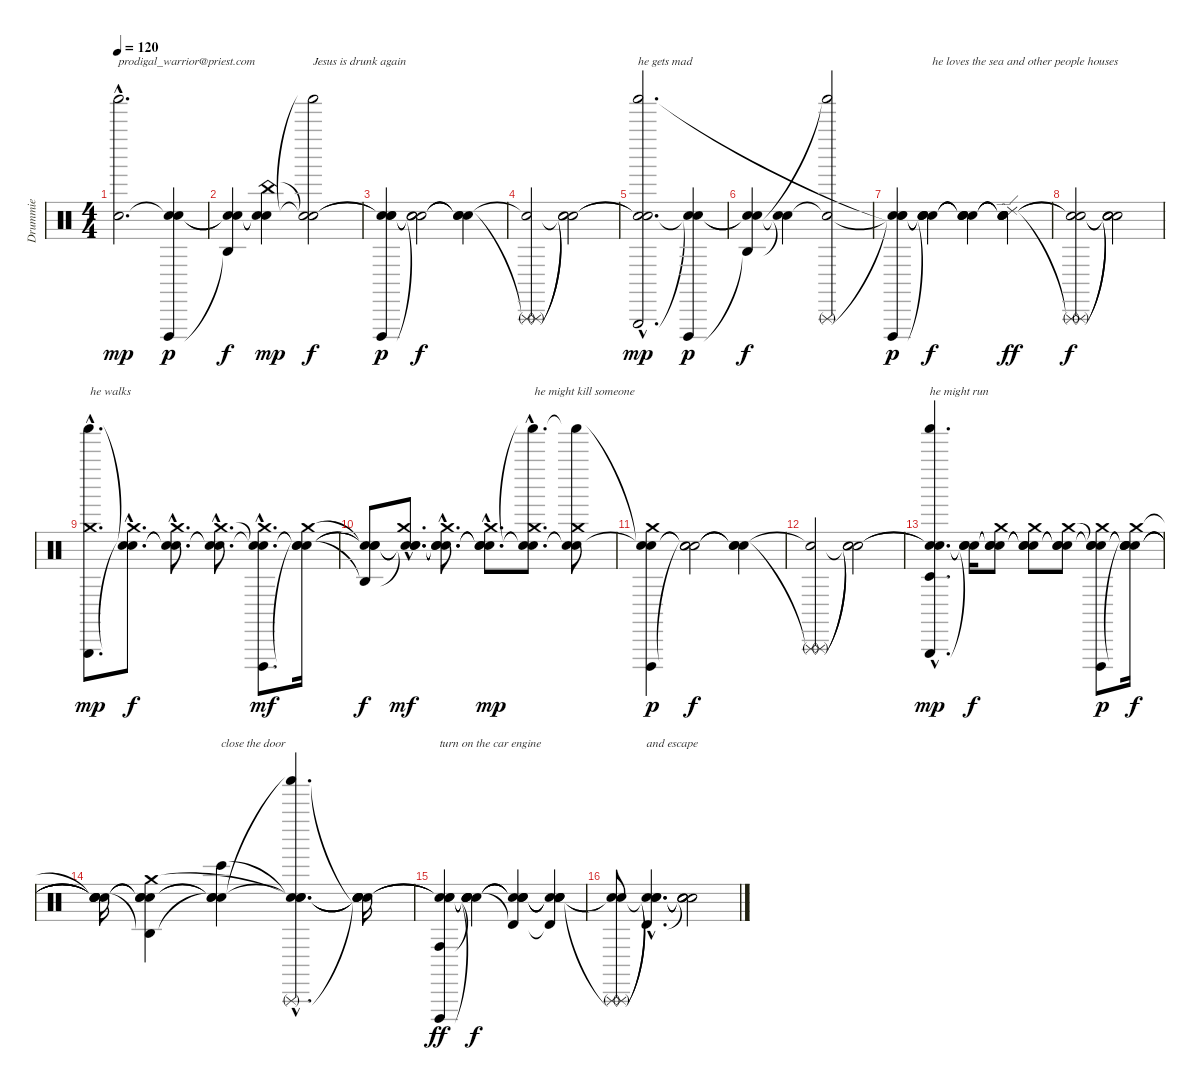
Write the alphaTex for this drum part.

\track ("Drummie" "Drummie") {instrument percussion}
\staff {score}
\articulation defaults
\ts (4 4)
\tempo 120
\clef neutral
\ks c
("Snare (hit)"{hac} "Shaker (hit)"{hac}).2{d txt "prodigal_warrior@priest.com" dy mp} ("Snare (hit)"{t} "Cuica (open)" "Snare (hit)").4{dy p} |
("Snare (hit)"{t} "Agogo high (hit)"{t} "Snare (hit)"{t}).4{dy f} ("Snare (hit)"{t} "China (hit)" "Snare (hit)"{t}).4{dy mp} ("Snare (hit)"{t} "Snare (hit)"{t} "Shaker (hit)"{t}).2{txt "Jesus is drunk again" dy f} |
("Snare (hit)"{t} "Snare (hit)"{t} "Cuica (open)" "Snare (hit)").4{dy p} ("Snare (hit)"{t} "Snare (hit)"{t} "Snare (hit)"{t}).2{dy f} ("Snare (hit)"{t} "Snare (hit)"{t} "Snare (hit)"{t}).4 |
("Triangle (rnute)" "Triangle (rnute)"{t} "Snare (hit)"{t}).2 ("Snare (hit)"{t} "Snare (hit)"{t} "Snare (hit)"{t}).2 |
("Triangle (hit)"{hac} "Snare (hit)"{hac t} "Snare (hit)"{hac t} "Shaker (hit)"{hac}).2{d txt "he gets mad" dy mp} ("Snare (hit)"{t} "Cuica (open)" "Snare (hit)"{t}).4{dy p} |
("Snare (hit)"{t} "Agogo high (hit)"{t} "Snare (hit)"{t}).4{dy f} ("Snare (hit)"{t} "Snare (hit)"{t}).4 ("Snare (hit)"{t} "Triangle (rnute)" "Shaker (hit)"{t}).2 |
("Snare (hit)"{t} "Snare (hit)"{t} "Cuica (open)" "Snare (hit)"{t}).4{dy p} ("Snare (hit)"{t} "Snare (hit)"{t} "Snare (hit)"{t} "Snare (hit)"{t}).4{txt "he loves the sea and other people houses" dy f} ("Snare (hit)"{t} "Snare (hit)"{t} "Snare (hit)"{t} "Snare (hit)"{t}).4 ("Snare (hit)"{t} "Snare (hit)"{t} "Snare (hit)"{t} "Snare (hit)"{t} "Ride (edge) 2").4{dy ff} |
("Triangle (rnute)" "Triangle (rnute)"{t} "Snare (hit)"{t} "Snare (hit)"{t}).2{dy f} ("Snare (hit)"{t} "Snare (hit)"{t} "Snare (hit)"{t} "Snare (hit)"{t}).2 |
("Triangle (hit)"{hac} "Shaker (hit)"{hac} "Crash medium (hit)"{hac}).8{d txt "he walks" dy mp} ("Snare (hit)"{hac t} "Snare (hit)"{hac t} "Crash medium (hit)"{hac}).8{d dy f} ("Snare (hit)"{hac t} "Snare (hit)"{hac t} "Crash medium (hit)"{hac}).8{d} ("Snare (hit)"{hac t} "Snare (hit)"{hac t} "Crash medium (hit)"{hac}).8{d} ("Snare (hit)"{hac t} "Cuica (open)"{hac} "Snare (hit)"{hac t} "Crash medium (hit)"{hac}).8{d dy mf} ("Snare (hit)"{t} "Snare (hit)"{t} "Snare (hit)"{t} "Crash medium (hit)").16 |
("Snare (hit)"{t} "Agogo high (hit)"{t} "Snare (hit)"{t} "Snare (hit)"{t}).8{dy f} ("Snare (hit)"{hac t} "Snare (hit)"{hac t} "Snare (hit)"{hac t} "Crash medium (hit)"{hac}).8{d dy mf} ("Snare (hit)"{hac t} "Snare (hit)"{hac t} "Snare (hit)"{hac t} "Crash medium (hit)"{hac}).8{d} ("Snare (hit)"{hac t} "Snare (hit)"{hac t} "Snare (hit)"{hac t} "Crash medium (hit)"{hac}).8{d dy mp} ("Snare (hit)"{hac t} "Snare (hit)"{hac t} "Shaker (hit)"{hac t} "Crash medium (hit)"{hac}).8{d txt "he might kill someone"} ("Snare (hit)"{t} "Snare (hit)"{t} "Shaker (hit)"{t} "Crash medium (hit)").8 |
("Snare (hit)"{t} "Cuica (open)" "Snare (hit)"{t} "Crash medium (hit)").4{dy p} ("Snare (hit)"{t} "Snare (hit)"{t} "Snare (hit)"{t}).2{dy f} ("Snare (hit)"{t} "Snare (hit)"{t} "Snare (hit)"{t}).4 |
("Triangle (rnute)" "Triangle (rnute)"{t} "Snare (hit)"{t}).2 ("Snare (hit)"{t} "Snare (hit)"{t} "Snare (hit)"{t}).2 |
("Triangle (hit)"{hac} "Snare (hit)"{hac t} "Snare (hit)"{hac t} "Shaker (hit)"{hac} "Timbale low (hit)"{hac}).4{d txt "he might run" dy mp} ("Snare (hit)"{t} "Snare (hit)"{t} "Snare (hit)"{t}).16{dy f} ("Snare (hit)"{t} "Snare (hit)"{t} "Snare (hit)"{t} "Crash medium (hit)").8 ("Snare (hit)"{t} "Snare (hit)"{t} "Snare (hit)"{t} "Crash medium (hit)").8 ("Snare (hit)"{t} "Snare (hit)"{t} "Snare (hit)"{t} "Crash medium (hit)").8 ("Snare (hit)"{t} "Cuica (open)" "Snare (hit)"{t} "Snare (hit)"{t} "Crash medium (hit)").8{dy p} ("Snare (hit)"{t} "Snare (hit)"{t} "Snare (hit)"{t} "Snare (hit)"{t} "Crash medium (hit)").16{dy f} |
("Snare (hit)"{t} "Snare (hit)"{t} "Snare (hit)"{t} "Snare (hit)"{t} "Snare (hit)"{t}).16 ("Snare (hit)"{t} "Agogo high (hit)"{t} "Snare (hit)"{t} "Snare (hit)"{t} "Crash medium (hit)").4 ("Snare (hit)"{t} "Snare (hit)"{t} "Snare (hit)"{t} "Bongo High (hit)").4{txt "close the door"} ("Snare (hit)"{hac t} "Triangle (rnute)"{hac} "Shaker (hit)"{hac t} "Snare (hit)"{hac t} "Snare (hit)"{hac t}).4{d} ("Snare (hit)"{t} "Snare (hit)"{t} "Snare (hit)"{t} "Snare (hit)"{t} "Snare (hit)"{t}).16 |
("Snare (hit)"{t} "Snare (hit)"{t} "Cuica (open)" "Snare (hit)"{t} "Conga high (hit)").4{txt "turn on the car engine" dy ff} ("Snare (hit)"{t} "Snare (hit)"{t} "Snare (hit)"{t} "Snare (hit)"{t} "Snare (hit)"{t}).4{dy f} ("Snare (hit)"{t} "Snare (hit)"{t} "Snare (hit)"{t} "Snare (hit)"{t} "Timbale high (hit)"{t}).4 ("Snare (hit)"{t} "Snare (hit)"{t} "Snare (hit)"{t} "Snare (hit)"{t} "Timbale high (hit)"{t}).4 |
("Triangle (rnute)" "Triangle (rnute)"{t} "Snare (hit)"{t} "Snare (hit)"{t}).8 ("Snare (hit)"{hac t} "Snare (hit)"{hac t} "Snare (hit)"{hac t} "Timbale high (hit)"{hac}).4{d txt "and escape"} ("Snare (hit)"{t} "Snare (hit)"{t} "Snare (hit)"{t} "Snare (hit)"{t}).2
